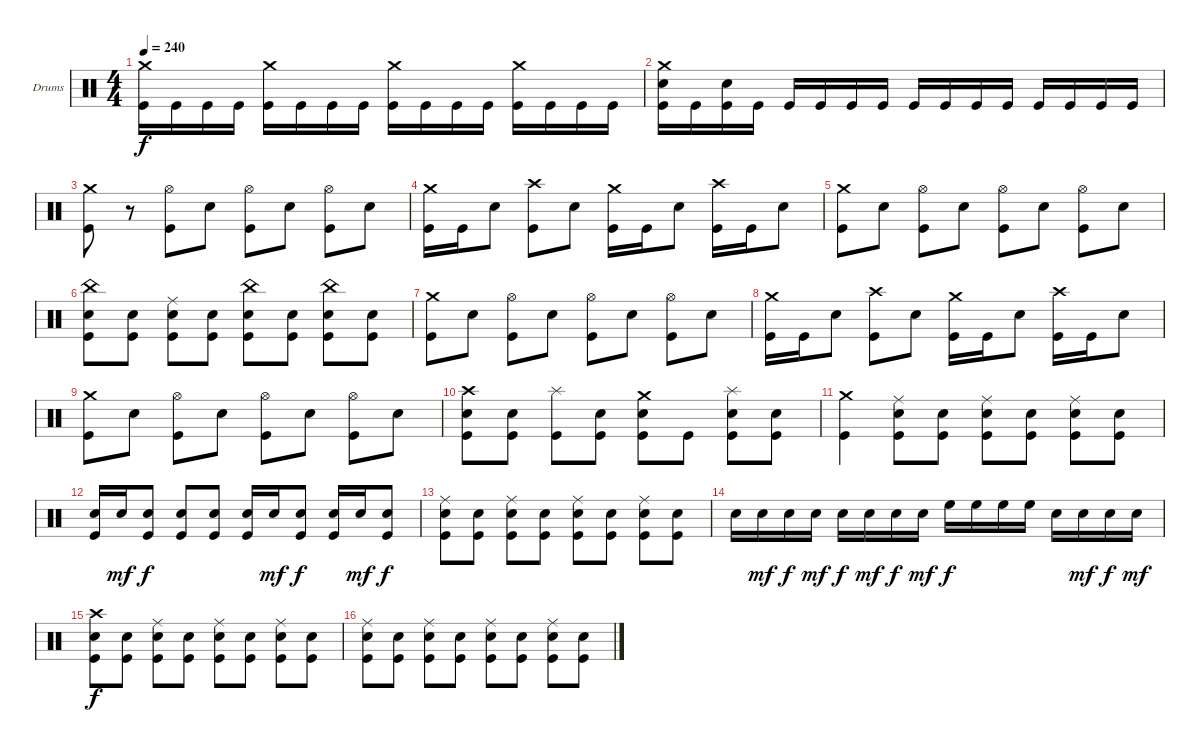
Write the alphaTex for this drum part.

\bracketExtendMode groupsimilarinstruments
\firstSystemTrackNameOrientation horizontal
\otherSystemsTrackNameOrientation horizontal
\track ("Drumkit" "Drums") {instrument percussion}
\staff {score}
\articulation defaults
\ts (4 4)
\tempo 240
\clef neutral
\ks c
("Crash medium (hit)" "Kick (hit)").16{dy f} "Kick (hit)".16 "Kick (hit)".16 "Kick (hit)".16 ("Crash medium (hit)" "Kick (hit)").16 "Kick (hit)".16 "Kick (hit)".16 "Kick (hit)".16 ("Crash medium (hit)" "Kick (hit)").16 "Kick (hit)".16 "Kick (hit)".16 "Kick (hit)".16 ("Crash medium (hit)" "Kick (hit)").16 "Kick (hit)".16 "Kick (hit)".16 "Kick (hit)".16 |
("Crash medium (hit)" "Snare (hit) 2" "Kick (hit)").16 "Kick (hit)".16 ("Snare (hit) 2" "Kick (hit)").16 "Kick (hit)".16 "Kick (hit)".16 "Kick (hit)".16 "Kick (hit)".16 "Kick (hit)".16 "Kick (hit)".16 "Kick (hit)".16 "Kick (hit)".16 "Kick (hit)".16 "Kick (hit)".16 "Kick (hit)".16 "Kick (hit)".16 "Kick (hit)".16 |
("Crash medium (hit)" "Kick (hit)").8 r.8 ("Hi-Hat (open)" "Kick (hit)").8 "Snare (hit) 2".8 ("Hi-Hat (open)" "Kick (hit)").8 "Snare (hit) 2".8 ("Hi-Hat (open)" "Kick (hit)").8 "Snare (hit) 2".8 |
("Crash medium (hit)" "Kick (hit)").16 "Kick (hit)".16 "Snare (hit) 2".8 ("Crash high (hit)" "Kick (hit)").8 "Snare (hit) 2".8 ("Crash medium (hit)" "Kick (hit)").16 "Kick (hit)".16 "Snare (hit) 2".8 ("Crash high (hit)" "Kick (hit)").16 "Kick (hit)".16 "Snare (hit) 2".8 |
("Crash medium (hit)" "Kick (hit)").8 "Snare (hit) 2".8 ("Hi-Hat (open)" "Kick (hit)").8 "Snare (hit) 2".8 ("Hi-Hat (open)" "Kick (hit)").8 "Snare (hit) 2".8 ("Hi-Hat (open)" "Kick (hit)").8 "Snare (hit) 2".8 |
("China (hit)" "Snare (hit) 2" "Kick (hit)").8 ("Snare (hit) 2" "Kick (hit)").8 ("Ride (middle)" "Snare (hit) 2" "Kick (hit)").8 ("Snare (hit) 2" "Kick (hit)").8 ("China (hit)" "Snare (hit) 2" "Kick (hit)").8 ("Snare (hit) 2" "Kick (hit)").8 ("China (hit)" "Snare (hit) 2" "Kick (hit)").8 ("Snare (hit) 2" "Kick (hit)").8 |
("Crash medium (hit)" "Kick (hit)").8 "Snare (hit) 2".8 ("Hi-Hat (open)" "Kick (hit)").8 "Snare (hit) 2".8 ("Hi-Hat (open)" "Kick (hit)").8 "Snare (hit) 2".8 ("Hi-Hat (open)" "Kick (hit)").8 "Snare (hit) 2".8 |
("Crash medium (hit)" "Kick (hit)").16 "Kick (hit)".16 "Snare (hit) 2".8 ("Crash high (hit)" "Kick (hit)").8 "Snare (hit) 2".8 ("Crash medium (hit)" "Kick (hit)").16 "Kick (hit)".16 "Snare (hit) 2".8 ("Crash high (hit)" "Kick (hit)").16 "Kick (hit)".16 "Snare (hit) 2".8 |
("Crash medium (hit)" "Kick (hit)").8 "Snare (hit) 2".8 ("Hi-Hat (open)" "Kick (hit)").8 "Snare (hit) 2".8 ("Hi-Hat (open)" "Kick (hit)").8 "Snare (hit) 2".8 ("Hi-Hat (open)" "Kick (hit)").8 "Snare (hit) 2".8 |
("Crash high (hit)" "Snare (hit) 2" "Kick (hit)").8 ("Snare (hit) 2" "Kick (hit)").8 ("Splash (hit)" "Kick (hit)").8 ("Snare (hit) 2" "Kick (hit)").8 ("Crash medium (hit)" "Snare (hit) 2" "Kick (hit)").8 "Kick (hit)".8 ("Splash (hit)" "Snare (hit) 2" "Kick (hit)").8 ("Snare (hit) 2" "Kick (hit)").8 |
("Crash medium (hit)" "Kick (hit)").4 ("Ride (middle)" "Snare (hit) 2" "Kick (hit)").8 ("Snare (hit) 2" "Kick (hit)").8 ("Ride (middle)" "Snare (hit) 2" "Kick (hit)").8 ("Snare (hit) 2" "Kick (hit)").8 ("Ride (middle)" "Snare (hit) 2" "Kick (hit)").8 ("Snare (hit) 2" "Kick (hit)").8 |
("Snare (hit) 2" "Kick (hit)").16 "Snare (hit) 2".16{dy mf} ("Snare (hit) 2" "Kick (hit)").8{dy f} ("Snare (hit) 2" "Kick (hit)").8 ("Snare (hit) 2" "Kick (hit)").8 ("Snare (hit) 2" "Kick (hit)").16 "Snare (hit) 2".16{dy mf} ("Snare (hit) 2" "Kick (hit)").8{dy f} ("Snare (hit) 2" "Kick (hit)").16 "Snare (hit) 2".16{dy mf} ("Snare (hit) 2" "Kick (hit)").8{dy f} |
("Ride (middle)" "Snare (hit) 2" "Kick (hit)").8 ("Snare (hit) 2" "Kick (hit)").8 ("Ride (middle)" "Snare (hit) 2" "Kick (hit)").8 ("Snare (hit) 2" "Kick (hit)").8 ("Ride (middle)" "Snare (hit) 2" "Kick (hit)").8 ("Snare (hit) 2" "Kick (hit)").8 ("Ride (middle)" "Snare (hit) 2" "Kick (hit)").8 ("Snare (hit) 2" "Kick (hit)").8 |
"Snare (hit) 2".16 "Snare (hit) 2".16{dy mf} "Snare (hit) 2".16{dy f} "Snare (hit) 2".16{dy mf} "Snare (hit) 2".16{dy f} "Snare (hit) 2".16{dy mf} "Snare (hit) 2".16{dy f} "Snare (hit) 2".16{dy mf} "High Floor Tom (hit)".16{dy f} "High Floor Tom (hit)".16 "High Floor Tom (hit)".16 "High Floor Tom (hit)".16 "Snare (hit) 2".16 "Snare (hit) 2".16{dy mf} "Snare (hit) 2".16{dy f} "Snare (hit) 2".16{dy mf} |
("Crash high (hit)" "Snare (hit) 2" "Kick (hit)").8{dy f} ("Snare (hit) 2" "Kick (hit)").8 ("Ride (middle)" "Snare (hit) 2" "Kick (hit)").8 ("Snare (hit) 2" "Kick (hit)").8 ("Ride (middle)" "Snare (hit) 2" "Kick (hit)").8 ("Snare (hit) 2" "Kick (hit)").8 ("Ride (middle)" "Snare (hit) 2" "Kick (hit)").8 ("Snare (hit) 2" "Kick (hit)").8 |
("Ride (middle)" "Snare (hit) 2" "Kick (hit)").8 ("Snare (hit) 2" "Kick (hit)").8 ("Ride (middle)" "Snare (hit) 2" "Kick (hit)").8 ("Snare (hit) 2" "Kick (hit)").8 ("Ride (middle)" "Snare (hit) 2" "Kick (hit)").8 ("Snare (hit) 2" "Kick (hit)").8 ("Ride (middle)" "Snare (hit) 2" "Kick (hit)").8 ("Snare (hit) 2" "Kick (hit)").8
